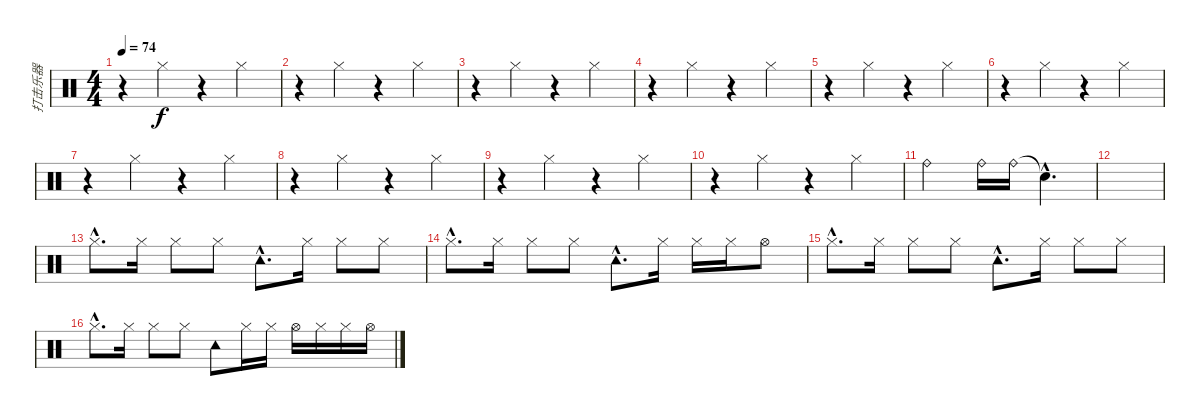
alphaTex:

\track ("打击乐器" "打击乐器") {instrument percussion}
\staff {score}
\articulation defaults
\ts (4 4)
\tempo 74
\clef neutral
\ks c
r.4{dy f} "Hi-Hat (closed)".4 r.4 "Hi-Hat (closed)".4 |
r.4 "Hi-Hat (closed)".4 r.4 "Hi-Hat (closed)".4 |
r.4 "Hi-Hat (closed)".4 r.4 "Hi-Hat (closed)".4 |
r.4 "Hi-Hat (closed)".4 r.4 "Hi-Hat (closed)".4 |
r.4 "Hi-Hat (closed)".4 r.4 "Hi-Hat (closed)".4 |
r.4 "Hi-Hat (closed)".4 r.4 "Hi-Hat (closed)".4 |
r.4 "Hi-Hat (closed)".4 r.4 "Hi-Hat (closed)".4 |
r.4 "Hi-Hat (closed)".4 r.4 "Hi-Hat (closed)".4 |
r.4 "Hi-Hat (closed)".4 r.4 "Hi-Hat (closed)".4 |
r.4 "Hi-Hat (closed)".4 r.4 "Hi-Hat (closed)".4 |
"Ride (bell)".2 "Ride (bell)".16 "Ride (bell)".16 "Snare (hit)"{hac t}.4{d} |
|
"Hi-Hat (closed)"{hac}.8{d} "Hi-Hat (closed)".16 "Hi-Hat (closed)".8 "Hi-Hat (closed)".8 "Tambourine (hit)"{hac}.8{d} "Hi-Hat (closed)".16 "Hi-Hat (closed)".8 "Hi-Hat (closed)".8 |
"Hi-Hat (closed)"{hac}.8{d} "Hi-Hat (closed)".16 "Hi-Hat (closed)".8 "Hi-Hat (closed)".8 "Tambourine (hit)"{hac}.8{d} "Hi-Hat (closed)".16 "Hi-Hat (closed)".16 "Hi-Hat (closed)".16 "Hi-Hat (open)".8 |
"Hi-Hat (closed)"{hac}.8{d} "Hi-Hat (closed)".16 "Hi-Hat (closed)".8 "Hi-Hat (closed)".8 "Tambourine (hit)"{hac}.8{d} "Hi-Hat (closed)".16 "Hi-Hat (closed)".8 "Hi-Hat (closed)".8 |
"Hi-Hat (closed)"{hac}.8{d} "Hi-Hat (closed)".16 "Hi-Hat (closed)".8 "Hi-Hat (closed)".8 "Tambourine (hit)".8 "Hi-Hat (closed)".16 "Hi-Hat (closed)".16 "Hi-Hat (open)".16 "Hi-Hat (closed)".16 "Hi-Hat (closed)".16 "Hi-Hat (open)".16
